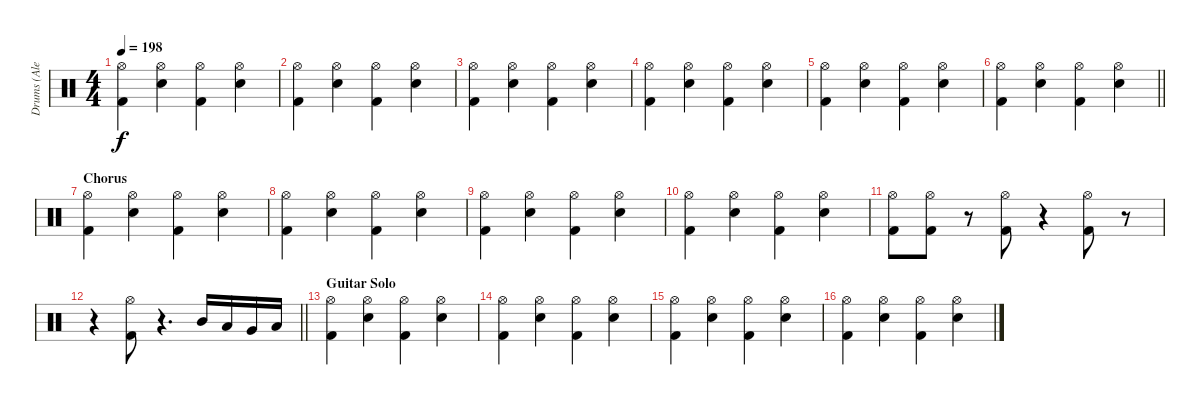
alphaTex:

\track ("Drums (Alex Van Halen)" "Drums (Ale") {instrument percussion}
\staff {score}
\articulation defaults
\ts (4 4)
\tempo 198
\clef neutral
\ks c
("Kick (hit) 2" "Hi-Hat (open)").4{dy f} ("Snare (hit) 2" "Hi-Hat (open)").4 ("Kick (hit) 2" "Hi-Hat (open)").4 ("Snare (hit) 2" "Hi-Hat (open)").4 |
("Kick (hit) 2" "Hi-Hat (open)").4 ("Snare (hit) 2" "Hi-Hat (open)").4 ("Kick (hit) 2" "Hi-Hat (open)").4 ("Snare (hit) 2" "Hi-Hat (open)").4 |
("Kick (hit) 2" "Hi-Hat (open)").4 ("Snare (hit) 2" "Hi-Hat (open)").4 ("Kick (hit) 2" "Hi-Hat (open)").4 ("Snare (hit) 2" "Hi-Hat (open)").4 |
("Kick (hit) 2" "Hi-Hat (open)").4 ("Snare (hit) 2" "Hi-Hat (open)").4 ("Kick (hit) 2" "Hi-Hat (open)").4 ("Snare (hit) 2" "Hi-Hat (open)").4 |
("Kick (hit) 2" "Hi-Hat (open)").4 ("Snare (hit) 2" "Hi-Hat (open)").4 ("Kick (hit) 2" "Hi-Hat (open)").4 ("Snare (hit) 2" "Hi-Hat (open)").4 |
\barLineRight lightlight
("Kick (hit) 2" "Hi-Hat (open)").4 ("Snare (hit) 2" "Hi-Hat (open)").4 ("Kick (hit) 2" "Hi-Hat (open)").4 ("Snare (hit) 2" "Hi-Hat (open)").4 |
\section ("" "Chorus")
("Kick (hit) 2" "Hi-Hat (open)").4 ("Snare (hit) 2" "Hi-Hat (open)").4 ("Kick (hit) 2" "Hi-Hat (open)").4 ("Snare (hit) 2" "Hi-Hat (open)").4 |
("Kick (hit) 2" "Hi-Hat (open)").4 ("Snare (hit) 2" "Hi-Hat (open)").4 ("Kick (hit) 2" "Hi-Hat (open)").4 ("Snare (hit) 2" "Hi-Hat (open)").4 |
("Kick (hit) 2" "Hi-Hat (open)").4 ("Snare (hit) 2" "Hi-Hat (open)").4 ("Kick (hit) 2" "Hi-Hat (open)").4 ("Snare (hit) 2" "Hi-Hat (open)").4 |
("Kick (hit) 2" "Hi-Hat (open)").4 ("Snare (hit) 2" "Hi-Hat (open)").4 ("Kick (hit) 2" "Hi-Hat (open)").4 ("Snare (hit) 2" "Hi-Hat (open)").4 |
("Kick (hit) 2" "Hi-Hat (open)").8 ("Kick (hit) 2" "Hi-Hat (open)").8 r.8 ("Kick (hit) 2" "Hi-Hat (open)").8 r.4 ("Kick (hit) 2" "Hi-Hat (open)").8 r.8 |
\barLineRight lightlight
r.4 ("Kick (hit) 2" "Hi-Hat (open)").8 r.4{d} "Mid Tom (hit)".16 "Low Tom (hit)".16 "Very Low Tom (hit)".16 "Low Floor Tom (hit)".16 |
\section ("" "Guitar Solo")
("Kick (hit) 2" "Hi-Hat (open)").4 ("Snare (hit) 2" "Hi-Hat (open)").4 ("Kick (hit) 2" "Hi-Hat (open)").4 ("Snare (hit) 2" "Hi-Hat (open)").4 |
("Kick (hit) 2" "Hi-Hat (open)").4 ("Snare (hit) 2" "Hi-Hat (open)").4 ("Kick (hit) 2" "Hi-Hat (open)").4 ("Snare (hit) 2" "Hi-Hat (open)").4 |
("Kick (hit) 2" "Hi-Hat (open)").4 ("Snare (hit) 2" "Hi-Hat (open)").4 ("Kick (hit) 2" "Hi-Hat (open)").4 ("Snare (hit) 2" "Hi-Hat (open)").4 |
("Kick (hit) 2" "Hi-Hat (open)").4 ("Snare (hit) 2" "Hi-Hat (open)").4 ("Kick (hit) 2" "Hi-Hat (open)").4 ("Snare (hit) 2" "Hi-Hat (open)").4
